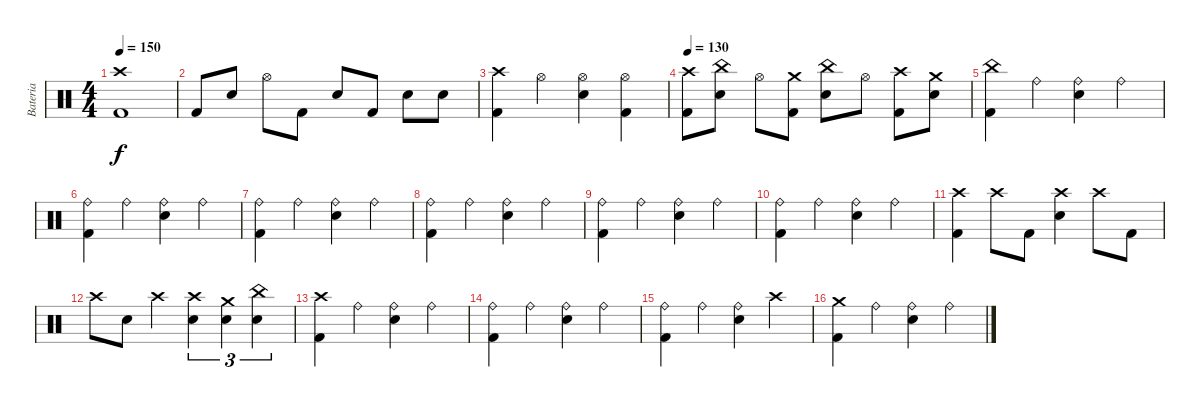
\track ("Bateria" "Bateria") {instrument percussion}
\staff {score}
\articulation defaults
\ts (4 4)
\tempo 150
\clef neutral
\ks c
("Crash high (hit)" "Kick (hit) 2").1{dy f} |
"Kick (hit) 2".8 "Snare (hit) 2".8 "Hi-Hat (open)".8 "Kick (hit) 2".8 "Snare (hit) 2".8 "Kick (hit) 2".8 "Snare (hit) 2".8 "Snare (hit) 2".8 |
("Crash high (hit)" "Kick (hit) 2").4 "Hi-Hat (open)".4 ("Hi-Hat (open)" "Snare (hit) 2").4 ("Hi-Hat (open)" "Kick (hit) 2").4 |
\tempo 130
("Crash high (hit)" "Kick (hit) 2").8 ("China (hit)" "Snare (hit) 2").8 "Hi-Hat (open)".8 ("Crash medium (hit)" "Kick (hit) 2").8 ("China (hit)" "Snare (hit) 2").8 "Hi-Hat (open)".8 ("Crash high (hit)" "Kick (hit) 2").8 ("Crash medium (hit)" "Snare (hit) 2").8 |
("China (hit)" "Kick (hit) 2").4 "Ride (bell)".4 ("Ride (bell)" "Snare (hit) 2").4 "Ride (bell)".4 |
("Ride (bell)" "Kick (hit) 2").4 "Ride (bell)".4 ("Ride (bell)" "Snare (hit) 2").4 "Ride (bell)".4 |
("Ride (bell)" "Kick (hit) 2").4 "Ride (bell)".4 ("Ride (bell)" "Snare (hit) 2").4 "Ride (bell)".4 |
("Ride (bell)" "Kick (hit) 2").4 "Ride (bell)".4 ("Ride (bell)" "Snare (hit) 2").4 "Ride (bell)".4 |
("Ride (bell)" "Kick (hit) 2").4 "Ride (bell)".4 ("Ride (bell)" "Snare (hit) 2").4 "Ride (bell)".4 |
("Ride (bell)" "Kick (hit) 2").4 "Ride (bell)".4 ("Ride (bell)" "Snare (hit) 2").4 "Ride (bell)".4 |
("Crash high (hit)" "Kick (hit) 2").4 "Crash high (hit)".8 "Kick (hit) 2".8 ("Crash high (hit)" "Snare (hit) 2").4 "Crash high (hit)".8 "Kick (hit) 2".8 |
"Crash high (hit)".8 "Snare (hit) 2".8 "Crash high (hit)".4 ("Crash high (hit)" "Snare (hit) 2").4{tu (3 2)} ("Crash medium (hit)" "Snare (hit) 2").4{tu (3 2)} ("China (hit)" "Snare (hit) 2").4{tu (3 2)} |
("Crash high (hit)" "Kick (hit) 2").4 "Ride (bell)".4 ("Ride (bell)" "Snare (hit) 2").4 "Ride (bell)".4 |
("Ride (bell)" "Kick (hit) 2").4 "Ride (bell)".4 ("Ride (bell)" "Snare (hit) 2").4 "Ride (bell)".4 |
("Ride (bell)" "Kick (hit) 2").4 "Ride (bell)".4 ("Ride (bell)" "Snare (hit) 2").4 "Crash high (hit)".4 |
("Crash medium (hit)" "Kick (hit) 2").4 "Ride (bell)".4 ("Ride (bell)" "Snare (hit) 2").4 "Ride (bell)".4
